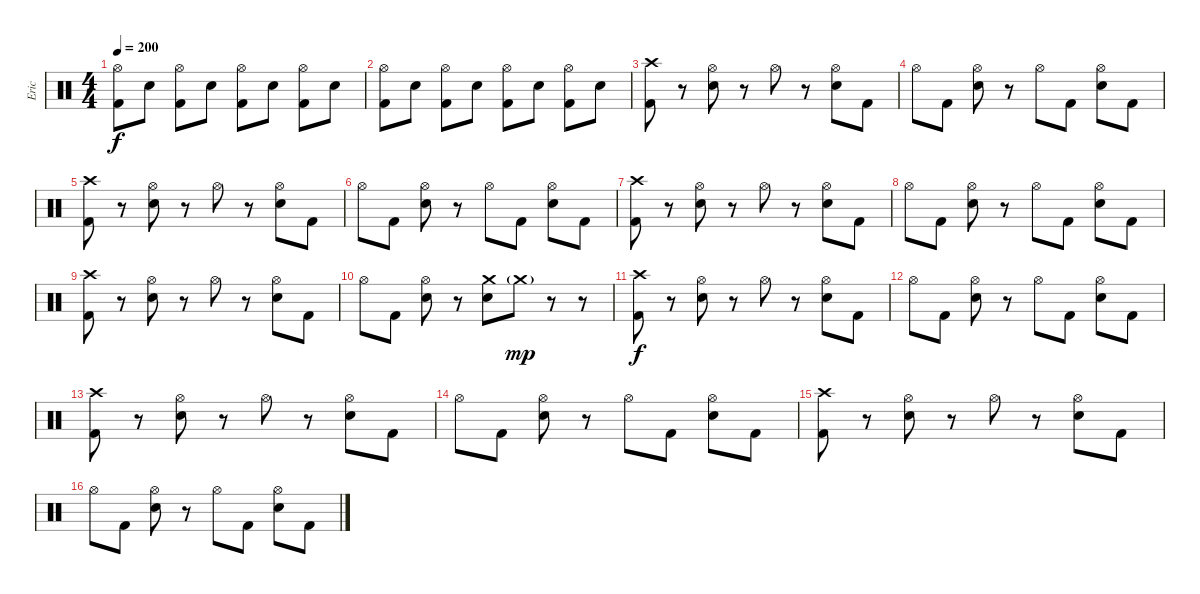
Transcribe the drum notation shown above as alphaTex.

\track ("Eric" "Eric") {instrument percussion}
\staff {score}
\articulation defaults
\ts (4 4)
\tempo 200
\clef neutral
\ks c
("Hi-Hat (open)" "Kick (hit) 2").8{dy f} "Electric Snare (hit)".8 ("Hi-Hat (open)" "Kick (hit) 2").8 "Electric Snare (hit)".8 ("Hi-Hat (open)" "Kick (hit) 2").8 "Electric Snare (hit)".8 ("Hi-Hat (open)" "Kick (hit) 2").8 "Electric Snare (hit)".8 |
("Hi-Hat (open)" "Kick (hit) 2").8 "Electric Snare (hit)".8 ("Hi-Hat (open)" "Kick (hit) 2").8 "Electric Snare (hit)".8 ("Hi-Hat (open)" "Kick (hit) 2").8 "Electric Snare (hit)".8 ("Hi-Hat (open)" "Kick (hit) 2").8 "Electric Snare (hit)".8 |
("Crash high (hit)" "Kick (hit) 2").8 r.8 ("Hi-Hat (open)" "Electric Snare (hit)").8 r.8 "Hi-Hat (open)".8 r.8 ("Hi-Hat (open)" "Electric Snare (hit)").8 "Kick (hit) 2".8 |
"Hi-Hat (open)".8 "Kick (hit) 2".8 ("Hi-Hat (open)" "Electric Snare (hit)").8 r.8 "Hi-Hat (open)".8 "Kick (hit) 2".8 ("Hi-Hat (open)" "Electric Snare (hit)").8 "Kick (hit) 2".8 |
("Crash high (hit)" "Kick (hit) 2").8 r.8 ("Hi-Hat (open)" "Electric Snare (hit)").8 r.8 "Hi-Hat (open)".8 r.8 ("Hi-Hat (open)" "Electric Snare (hit)").8 "Kick (hit) 2".8 |
"Hi-Hat (open)".8 "Kick (hit) 2".8 ("Hi-Hat (open)" "Electric Snare (hit)").8 r.8 "Hi-Hat (open)".8 "Kick (hit) 2".8 ("Hi-Hat (open)" "Electric Snare (hit)").8 "Kick (hit) 2".8 |
("Crash high (hit)" "Kick (hit) 2").8 r.8 ("Hi-Hat (open)" "Electric Snare (hit)").8 r.8 "Hi-Hat (open)".8 r.8 ("Hi-Hat (open)" "Electric Snare (hit)").8 "Kick (hit) 2".8 |
"Hi-Hat (open)".8 "Kick (hit) 2".8 ("Hi-Hat (open)" "Electric Snare (hit)").8 r.8 "Hi-Hat (open)".8 "Kick (hit) 2".8 ("Hi-Hat (open)" "Electric Snare (hit)").8 "Kick (hit) 2".8 |
("Crash high (hit)" "Kick (hit) 2").8 r.8 ("Hi-Hat (open)" "Electric Snare (hit)").8 r.8 "Hi-Hat (open)".8 r.8 ("Hi-Hat (open)" "Electric Snare (hit)").8 "Kick (hit) 2".8 |
"Hi-Hat (open)".8 "Kick (hit) 2".8 ("Hi-Hat (open)" "Electric Snare (hit)").8 r.8 ("Crash medium (hit)" "Electric Snare (hit)").8 "Crash medium (hit)"{g}.8{dy mp} r.8 r.8 |
("Crash high (hit)" "Kick (hit) 2").8{dy f} r.8 ("Hi-Hat (open)" "Electric Snare (hit)").8 r.8 "Hi-Hat (open)".8 r.8 ("Hi-Hat (open)" "Electric Snare (hit)").8 "Kick (hit) 2".8 |
"Hi-Hat (open)".8 "Kick (hit) 2".8 ("Hi-Hat (open)" "Electric Snare (hit)").8 r.8 "Hi-Hat (open)".8 "Kick (hit) 2".8 ("Hi-Hat (open)" "Electric Snare (hit)").8 "Kick (hit) 2".8 |
("Crash high (hit)" "Kick (hit) 2").8 r.8 ("Hi-Hat (open)" "Electric Snare (hit)").8 r.8 "Hi-Hat (open)".8 r.8 ("Hi-Hat (open)" "Electric Snare (hit)").8 "Kick (hit) 2".8 |
"Hi-Hat (open)".8 "Kick (hit) 2".8 ("Hi-Hat (open)" "Electric Snare (hit)").8 r.8 "Hi-Hat (open)".8 "Kick (hit) 2".8 ("Hi-Hat (open)" "Electric Snare (hit)").8 "Kick (hit) 2".8 |
("Crash high (hit)" "Kick (hit) 2").8 r.8 ("Hi-Hat (open)" "Electric Snare (hit)").8 r.8 "Hi-Hat (open)".8 r.8 ("Hi-Hat (open)" "Electric Snare (hit)").8 "Kick (hit) 2".8 |
"Hi-Hat (open)".8 "Kick (hit) 2".8 ("Hi-Hat (open)" "Electric Snare (hit)").8 r.8 "Hi-Hat (open)".8 "Kick (hit) 2".8 ("Hi-Hat (open)" "Electric Snare (hit)").8 "Kick (hit) 2".8
